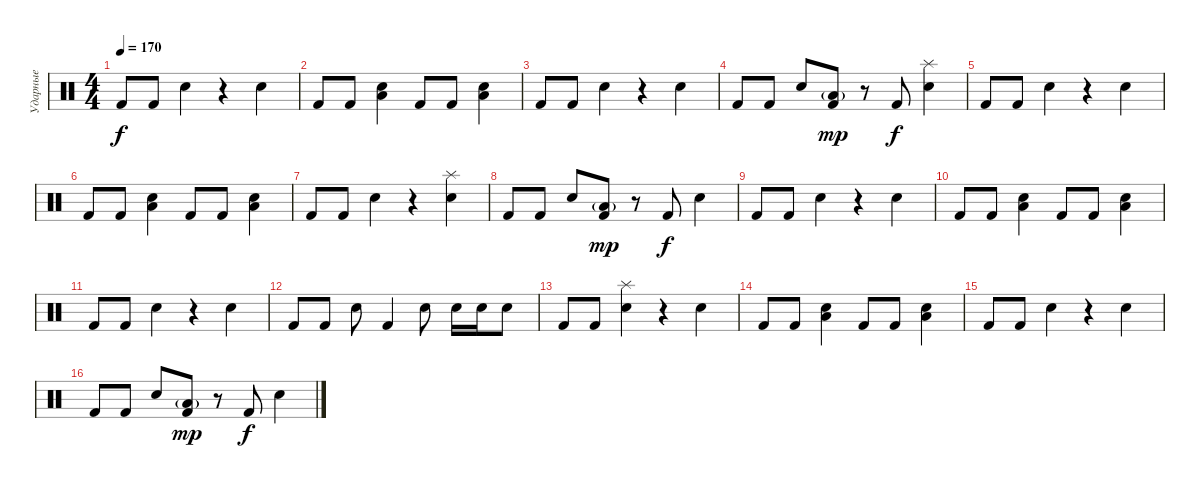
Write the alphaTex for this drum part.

\track ("Ударные" "Ударные") {instrument percussion}
\staff {score}
\articulation defaults
\ts (4 4)
\tempo 170
\clef neutral
\ks c "Kick (hit) 2".8{dy f} "Kick (hit) 2".8 "Snare (hit) 2".4
r.4 "Snare (hit) 2".4 |
"Kick (hit) 2".8 "Kick (hit) 2".8 ("Snare (hit) 2" "Low Floor Tom (hit)").4 "Kick (hit) 2".8 "Kick (hit) 2".8 ("Snare (hit) 2" "Low Floor Tom (hit)").4 |
"Kick (hit) 2".8 "Kick (hit) 2".8 "Snare (hit) 2".4 r.4 "Snare (hit) 2".4 |
"Kick (hit) 2".8 "Kick (hit) 2".8 "Snare (hit) 2".8 ("Kick (hit) 2" "Low Floor Tom (hit)"{g}).8{dy mp} r.8 "Kick (hit) 2".8{dy f} ("Snare (hit) 2" "Splash (hit)").4 |
"Kick (hit) 2".8 "Kick (hit) 2".8 "Snare (hit) 2".4 r.4 "Snare (hit) 2".4 |
"Kick (hit) 2".8 "Kick (hit) 2".8 ("Snare (hit) 2" "Low Floor Tom (hit)").4 "Kick (hit) 2".8 "Kick (hit) 2".8 ("Snare (hit) 2" "Low Floor Tom (hit)").4 |
"Kick (hit) 2".8 "Kick (hit) 2".8 "Snare (hit) 2".4 r.4 ("Snare (hit) 2" "Splash (hit)").4 |
"Kick (hit) 2".8 "Kick (hit) 2".8 "Snare (hit) 2".8 ("Kick (hit) 2" "Low Floor Tom (hit)"{g}).8{dy mp} r.8 "Kick (hit) 2".8{dy f} "Snare (hit) 2".4 |
"Kick (hit) 2".8 "Kick (hit) 2".8 "Snare (hit) 2".4 r.4 "Snare (hit) 2".4 |
"Kick (hit) 2".8 "Kick (hit) 2".8 ("Snare (hit) 2" "Low Floor Tom (hit)").4 "Kick (hit) 2".8 "Kick (hit) 2".8 ("Snare (hit) 2" "Low Floor Tom (hit)").4 |
"Kick (hit) 2".8 "Kick (hit) 2".8 "Snare (hit) 2".4 r.4 "Snare (hit) 2".4 |
"Kick (hit) 2".8 "Kick (hit) 2".8 "Snare (hit) 2".8 "Kick (hit) 2".4 "Snare (hit) 2".8 "Snare (hit) 2".16 "Snare (hit) 2".16 "Snare (hit) 2".8 |
"Kick (hit) 2".8 "Kick (hit) 2".8 ("Snare (hit) 2" "Splash (hit)").4 r.4 "Snare (hit) 2".4 |
"Kick (hit) 2".8 "Kick (hit) 2".8 ("Snare (hit) 2" "Low Floor Tom (hit)").4 "Kick (hit) 2".8 "Kick (hit) 2".8 ("Snare (hit) 2" "Low Floor Tom (hit)").4 |
"Kick (hit) 2".8 "Kick (hit) 2".8 "Snare (hit) 2".4 r.4 "Snare (hit) 2".4 |
"Kick (hit) 2".8 "Kick (hit) 2".8 "Snare (hit) 2".8 ("Kick (hit) 2" "Low Floor Tom (hit)"{g}).8{dy mp} r.8 "Kick (hit) 2".8{dy f} "Snare (hit) 2".4
